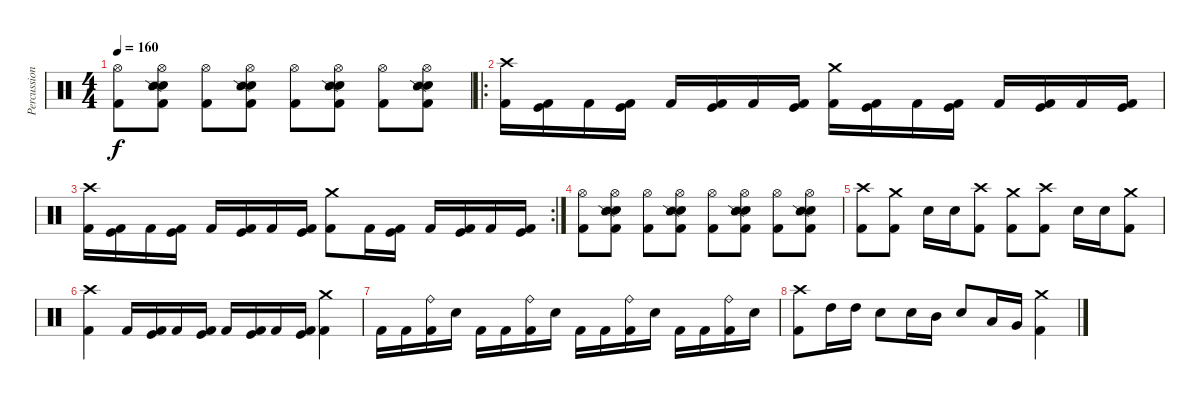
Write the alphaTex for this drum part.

\track ("Percussion" "Percussion") {instrument percussion}
\staff {score}
\articulation defaults
\ts (4 4)
\tempo 160
\clef neutral
\ks c
("Hi-Hat (open)" "Kick (hit) 2").8{dy f} ("Hi-Hat (open)" "Electric Snare (hit)" "Snare (side stick) 2" "Kick (hit) 2").8 ("Hi-Hat (open)" "Kick (hit) 2").8 ("Hi-Hat (open)" "Electric Snare (hit)" "Snare (side stick) 2" "Kick (hit) 2").8 ("Hi-Hat (open)" "Kick (hit) 2").8 ("Hi-Hat (open)" "Electric Snare (hit)" "Snare (side stick) 2" "Kick (hit) 2").8 ("Hi-Hat (open)" "Kick (hit) 2").8 ("Hi-Hat (open)" "Electric Snare (hit)" "Snare (side stick) 2" "Kick (hit) 2").8 |
\ro
("Crash high (hit)" "Kick (hit) 2").16 ("Kick (hit)" "Kick (hit) 2").16 "Kick (hit) 2".16 ("Kick (hit)" "Kick (hit) 2").16 "Kick (hit) 2".16 ("Kick (hit)" "Kick (hit) 2").16 "Kick (hit) 2".16 ("Kick (hit)" "Kick (hit) 2").16 ("Crash medium (hit)" "Kick (hit) 2").16 ("Kick (hit)" "Kick (hit) 2").16 "Kick (hit) 2".16 ("Kick (hit)" "Kick (hit) 2").16 "Kick (hit) 2".16 ("Kick (hit)" "Kick (hit) 2").16 "Kick (hit) 2".16 ("Kick (hit)" "Kick (hit) 2").16 |
\rc 2
("Crash high (hit)" "Kick (hit) 2").16 ("Kick (hit)" "Kick (hit) 2").16 "Kick (hit) 2".16 ("Kick (hit)" "Kick (hit) 2").16 "Kick (hit) 2".16 ("Kick (hit)" "Kick (hit) 2").16 "Kick (hit) 2".16 ("Kick (hit)" "Kick (hit) 2").16 ("Crash medium (hit)" "Kick (hit) 2").8 "Kick (hit) 2".16 ("Kick (hit)" "Kick (hit) 2").16 "Kick (hit) 2".16 ("Kick (hit)" "Kick (hit) 2").16 "Kick (hit) 2".16 ("Kick (hit)" "Kick (hit) 2").16 |
("Hi-Hat (open)" "Kick (hit) 2").8 ("Hi-Hat (open)" "Electric Snare (hit)" "Snare (side stick) 2" "Kick (hit) 2").8 ("Hi-Hat (open)" "Kick (hit) 2").8 ("Hi-Hat (open)" "Electric Snare (hit)" "Snare (side stick) 2" "Kick (hit) 2").8 ("Hi-Hat (open)" "Kick (hit) 2").8 ("Hi-Hat (open)" "Electric Snare (hit)" "Snare (side stick) 2" "Kick (hit) 2").8 ("Hi-Hat (open)" "Kick (hit) 2").8 ("Hi-Hat (open)" "Electric Snare (hit)" "Snare (side stick) 2" "Kick (hit) 2").8 |
("Crash high (hit)" "Kick (hit) 2").8 ("Crash medium (hit)" "Kick (hit) 2").8 "Electric Snare (hit)".16 "Electric Snare (hit)".16 ("Crash high (hit)" "Kick (hit) 2").8 ("Crash medium (hit)" "Kick (hit) 2").8 ("Crash high (hit)" "Kick (hit) 2").8 "Electric Snare (hit)".16 "Electric Snare (hit)".16 ("Crash medium (hit)" "Kick (hit) 2").8 |
("Crash high (hit)" "Kick (hit) 2").4 "Kick (hit) 2".16 ("Kick (hit)" "Kick (hit) 2").16 "Kick (hit) 2".16 ("Kick (hit)" "Kick (hit) 2").16 "Kick (hit) 2".16 ("Kick (hit)" "Kick (hit) 2").16 "Kick (hit) 2".16 ("Kick (hit)" "Kick (hit) 2").16 ("Crash medium (hit)" "Kick (hit) 2").4 |
"Kick (hit) 2".16 "Kick (hit) 2".16 ("Ride (bell)" "Kick (hit) 2").16 "Electric Snare (hit)".16 "Kick (hit) 2".16 "Kick (hit) 2".16 ("Ride (bell)" "Kick (hit) 2").16 "Electric Snare (hit)".16 "Kick (hit) 2".16 "Kick (hit) 2".16 ("Ride (bell)" "Kick (hit) 2").16 "Electric Snare (hit)".16 "Kick (hit) 2".16 "Kick (hit) 2".16 ("Ride (bell)" "Kick (hit) 2").16 "Electric Snare (hit)".16 |
("Crash high (hit)" "Kick (hit) 2").8 "High Tom (hit)".16 "High Tom (hit)".16 "Electric Snare (hit)".8 "Electric Snare (hit)".16 "Mid Tom (hit)".16 "Electric Snare (hit)".8 "Low Tom (hit)".16 "Very Low Tom (hit)".16 ("Crash medium (hit)" "Kick (hit) 2").4
